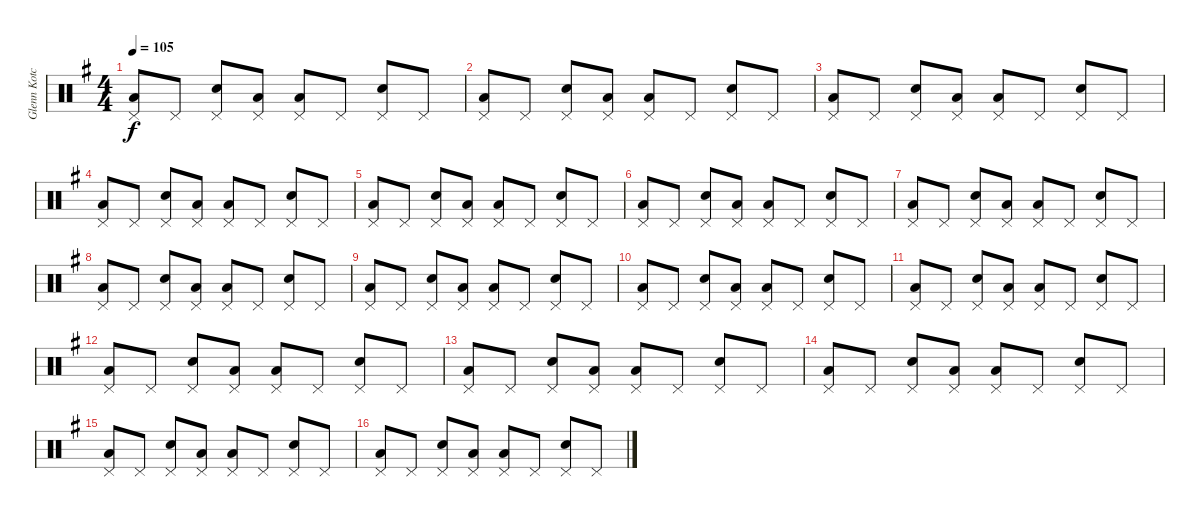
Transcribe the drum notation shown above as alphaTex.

\track ("Glenn Kotche" "Glenn Kotc") {mute instrument percussion}
\staff {score}
\articulation defaults
\ts (4 4)
\tempo 105
\clef neutral
\ks g
("Pedal Hi-Hat (hit)" "Low Floor Tom (hit)").8{dy f} "Pedal Hi-Hat (hit)".8 ("Pedal Hi-Hat (hit)" "Snare (hit) 2").8 ("Pedal Hi-Hat (hit)" "Low Floor Tom (hit)").8 ("Pedal Hi-Hat (hit)" "Low Floor Tom (hit)").8 "Pedal Hi-Hat (hit)".8 ("Pedal Hi-Hat (hit)" "Snare (hit) 2").8 "Pedal Hi-Hat (hit)".8 |
("Pedal Hi-Hat (hit)" "Low Floor Tom (hit)").8 "Pedal Hi-Hat (hit)".8 ("Pedal Hi-Hat (hit)" "Snare (hit) 2").8 ("Pedal Hi-Hat (hit)" "Low Floor Tom (hit)").8 ("Pedal Hi-Hat (hit)" "Low Floor Tom (hit)").8 "Pedal Hi-Hat (hit)".8 ("Pedal Hi-Hat (hit)" "Snare (hit) 2").8 "Pedal Hi-Hat (hit)".8 |
("Pedal Hi-Hat (hit)" "Low Floor Tom (hit)").8 "Pedal Hi-Hat (hit)".8 ("Pedal Hi-Hat (hit)" "Snare (hit) 2").8 ("Pedal Hi-Hat (hit)" "Low Floor Tom (hit)").8 ("Pedal Hi-Hat (hit)" "Low Floor Tom (hit)").8 "Pedal Hi-Hat (hit)".8 ("Pedal Hi-Hat (hit)" "Snare (hit) 2").8 "Pedal Hi-Hat (hit)".8 |
("Pedal Hi-Hat (hit)" "Low Floor Tom (hit)").8 "Pedal Hi-Hat (hit)".8 ("Pedal Hi-Hat (hit)" "Snare (hit) 2").8 ("Pedal Hi-Hat (hit)" "Low Floor Tom (hit)").8 ("Pedal Hi-Hat (hit)" "Low Floor Tom (hit)").8 "Pedal Hi-Hat (hit)".8 ("Pedal Hi-Hat (hit)" "Snare (hit) 2").8 "Pedal Hi-Hat (hit)".8 |
("Pedal Hi-Hat (hit)" "Low Floor Tom (hit)").8 "Pedal Hi-Hat (hit)".8 ("Pedal Hi-Hat (hit)" "Snare (hit) 2").8 ("Pedal Hi-Hat (hit)" "Low Floor Tom (hit)").8 ("Pedal Hi-Hat (hit)" "Low Floor Tom (hit)").8 "Pedal Hi-Hat (hit)".8 ("Pedal Hi-Hat (hit)" "Snare (hit) 2").8 "Pedal Hi-Hat (hit)".8 |
("Pedal Hi-Hat (hit)" "Low Floor Tom (hit)").8 "Pedal Hi-Hat (hit)".8 ("Pedal Hi-Hat (hit)" "Snare (hit) 2").8 ("Pedal Hi-Hat (hit)" "Low Floor Tom (hit)").8 ("Pedal Hi-Hat (hit)" "Low Floor Tom (hit)").8 "Pedal Hi-Hat (hit)".8 ("Pedal Hi-Hat (hit)" "Snare (hit) 2").8 "Pedal Hi-Hat (hit)".8 |
("Pedal Hi-Hat (hit)" "Low Floor Tom (hit)").8 "Pedal Hi-Hat (hit)".8 ("Pedal Hi-Hat (hit)" "Snare (hit) 2").8 ("Pedal Hi-Hat (hit)" "Low Floor Tom (hit)").8 ("Pedal Hi-Hat (hit)" "Low Floor Tom (hit)").8 "Pedal Hi-Hat (hit)".8 ("Pedal Hi-Hat (hit)" "Snare (hit) 2").8 "Pedal Hi-Hat (hit)".8 |
("Pedal Hi-Hat (hit)" "Low Floor Tom (hit)").8 "Pedal Hi-Hat (hit)".8 ("Pedal Hi-Hat (hit)" "Snare (hit) 2").8 ("Pedal Hi-Hat (hit)" "Low Floor Tom (hit)").8 ("Pedal Hi-Hat (hit)" "Low Floor Tom (hit)").8 "Pedal Hi-Hat (hit)".8 ("Pedal Hi-Hat (hit)" "Snare (hit) 2").8 "Pedal Hi-Hat (hit)".8 |
("Pedal Hi-Hat (hit)" "Low Floor Tom (hit)").8 "Pedal Hi-Hat (hit)".8 ("Pedal Hi-Hat (hit)" "Snare (hit) 2").8 ("Pedal Hi-Hat (hit)" "Low Floor Tom (hit)").8 ("Pedal Hi-Hat (hit)" "Low Floor Tom (hit)").8 "Pedal Hi-Hat (hit)".8 ("Pedal Hi-Hat (hit)" "Snare (hit) 2").8 "Pedal Hi-Hat (hit)".8 |
("Pedal Hi-Hat (hit)" "Low Floor Tom (hit)").8 "Pedal Hi-Hat (hit)".8 ("Pedal Hi-Hat (hit)" "Snare (hit) 2").8 ("Pedal Hi-Hat (hit)" "Low Floor Tom (hit)").8 ("Pedal Hi-Hat (hit)" "Low Floor Tom (hit)").8 "Pedal Hi-Hat (hit)".8 ("Pedal Hi-Hat (hit)" "Snare (hit) 2").8 "Pedal Hi-Hat (hit)".8 |
("Pedal Hi-Hat (hit)" "Low Floor Tom (hit)").8 "Pedal Hi-Hat (hit)".8 ("Pedal Hi-Hat (hit)" "Snare (hit) 2").8 ("Pedal Hi-Hat (hit)" "Low Floor Tom (hit)").8 ("Pedal Hi-Hat (hit)" "Low Floor Tom (hit)").8 "Pedal Hi-Hat (hit)".8 ("Pedal Hi-Hat (hit)" "Snare (hit) 2").8 "Pedal Hi-Hat (hit)".8 |
("Pedal Hi-Hat (hit)" "Low Floor Tom (hit)").8 "Pedal Hi-Hat (hit)".8 ("Pedal Hi-Hat (hit)" "Snare (hit) 2").8 ("Pedal Hi-Hat (hit)" "Low Floor Tom (hit)").8 ("Pedal Hi-Hat (hit)" "Low Floor Tom (hit)").8 "Pedal Hi-Hat (hit)".8 ("Pedal Hi-Hat (hit)" "Snare (hit) 2").8 "Pedal Hi-Hat (hit)".8 |
("Pedal Hi-Hat (hit)" "Low Floor Tom (hit)").8 "Pedal Hi-Hat (hit)".8 ("Pedal Hi-Hat (hit)" "Snare (hit) 2").8 ("Pedal Hi-Hat (hit)" "Low Floor Tom (hit)").8 ("Pedal Hi-Hat (hit)" "Low Floor Tom (hit)").8 "Pedal Hi-Hat (hit)".8 ("Pedal Hi-Hat (hit)" "Snare (hit) 2").8 "Pedal Hi-Hat (hit)".8 |
("Pedal Hi-Hat (hit)" "Low Floor Tom (hit)").8 "Pedal Hi-Hat (hit)".8 ("Pedal Hi-Hat (hit)" "Snare (hit) 2").8 ("Pedal Hi-Hat (hit)" "Low Floor Tom (hit)").8 ("Pedal Hi-Hat (hit)" "Low Floor Tom (hit)").8 "Pedal Hi-Hat (hit)".8 ("Pedal Hi-Hat (hit)" "Snare (hit) 2").8 "Pedal Hi-Hat (hit)".8 |
("Pedal Hi-Hat (hit)" "Low Floor Tom (hit)").8 "Pedal Hi-Hat (hit)".8 ("Pedal Hi-Hat (hit)" "Snare (hit) 2").8 ("Pedal Hi-Hat (hit)" "Low Floor Tom (hit)").8 ("Pedal Hi-Hat (hit)" "Low Floor Tom (hit)").8 "Pedal Hi-Hat (hit)".8 ("Pedal Hi-Hat (hit)" "Snare (hit) 2").8 "Pedal Hi-Hat (hit)".8 |
("Pedal Hi-Hat (hit)" "Low Floor Tom (hit)").8 "Pedal Hi-Hat (hit)".8 ("Pedal Hi-Hat (hit)" "Snare (hit) 2").8 ("Pedal Hi-Hat (hit)" "Low Floor Tom (hit)").8 ("Pedal Hi-Hat (hit)" "Low Floor Tom (hit)").8 "Pedal Hi-Hat (hit)".8 ("Pedal Hi-Hat (hit)" "Snare (hit) 2").8 "Pedal Hi-Hat (hit)".8
